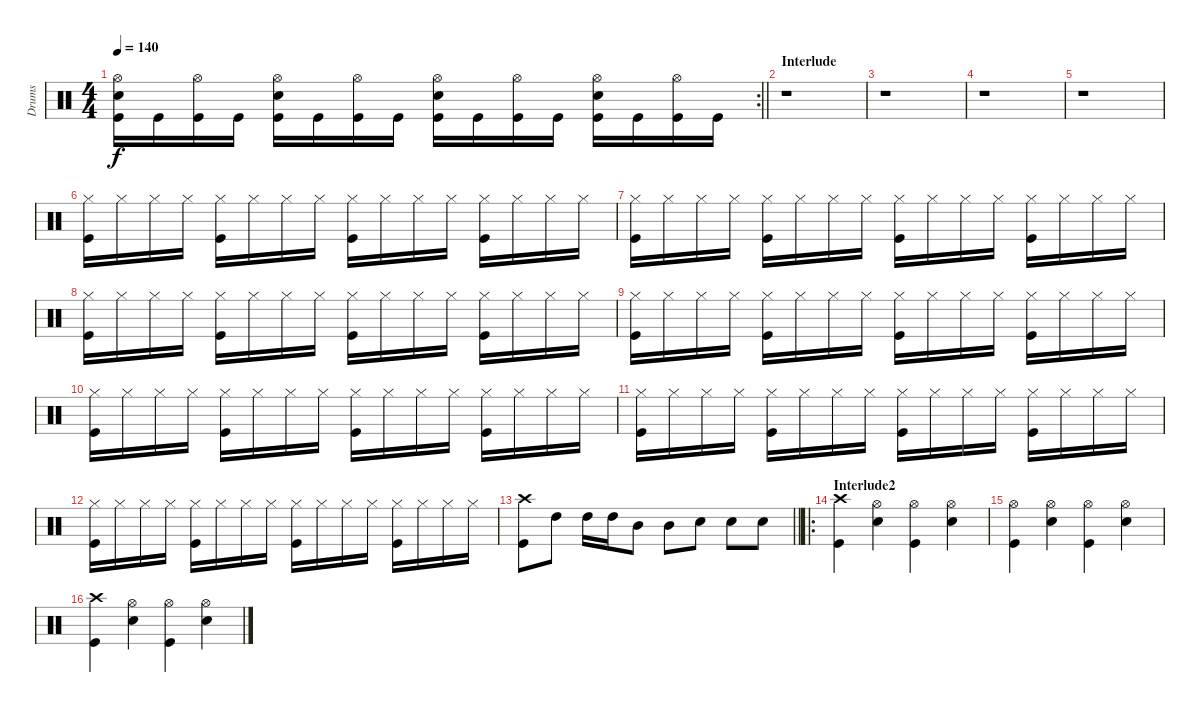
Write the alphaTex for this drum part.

\track ("Drums" "Drums") {instrument percussion}
\staff {score}
\articulation defaults
\rc 2
\ts (4 4)
\tempo 140
\clef neutral
\barLineRight lightlight
\ks c
("Snare (hit) 2" "Hi-Hat (open)" "Kick (hit)").16{dy f} "Kick (hit)".16 ("Hi-Hat (open)" "Kick (hit)").16 "Kick (hit)".16 ("Snare (hit) 2" "Hi-Hat (open)" "Kick (hit)").16 "Kick (hit)".16 ("Hi-Hat (open)" "Kick (hit)").16 "Kick (hit)".16 ("Snare (hit) 2" "Hi-Hat (open)" "Kick (hit)").16 "Kick (hit)".16 ("Hi-Hat (open)" "Kick (hit)").16 "Kick (hit)".16 ("Snare (hit) 2" "Hi-Hat (open)" "Kick (hit)").16 "Kick (hit)".16 ("Hi-Hat (open)" "Kick (hit)").16 "Kick (hit)".16 |
\section ("" "Interlude")
r.1 |
r.1 |
r.1 |
r.1 |
("Hi-Hat (closed)" "Kick (hit)").16 "Hi-Hat (closed)".16 "Hi-Hat (closed)".16 "Hi-Hat (closed)".16 ("Hi-Hat (closed)" "Kick (hit)").16 "Hi-Hat (closed)".16 "Hi-Hat (closed)".16 "Hi-Hat (closed)".16 ("Hi-Hat (closed)" "Kick (hit)").16 "Hi-Hat (closed)".16 "Hi-Hat (closed)".16 "Hi-Hat (closed)".16 ("Hi-Hat (closed)" "Kick (hit)").16 "Hi-Hat (closed)".16 "Hi-Hat (closed)".16 "Hi-Hat (closed)".16 |
("Hi-Hat (closed)" "Kick (hit)").16 "Hi-Hat (closed)".16 "Hi-Hat (closed)".16 "Hi-Hat (closed)".16 ("Hi-Hat (closed)" "Kick (hit)").16 "Hi-Hat (closed)".16 "Hi-Hat (closed)".16 "Hi-Hat (closed)".16 ("Hi-Hat (closed)" "Kick (hit)").16 "Hi-Hat (closed)".16 "Hi-Hat (closed)".16 "Hi-Hat (closed)".16 ("Hi-Hat (closed)" "Kick (hit)").16 "Hi-Hat (closed)".16 "Hi-Hat (closed)".16 "Hi-Hat (closed)".16 |
("Hi-Hat (closed)" "Kick (hit)").16 "Hi-Hat (closed)".16 "Hi-Hat (closed)".16 "Hi-Hat (closed)".16 ("Hi-Hat (closed)" "Kick (hit)").16 "Hi-Hat (closed)".16 "Hi-Hat (closed)".16 "Hi-Hat (closed)".16 ("Hi-Hat (closed)" "Kick (hit)").16 "Hi-Hat (closed)".16 "Hi-Hat (closed)".16 "Hi-Hat (closed)".16 ("Hi-Hat (closed)" "Kick (hit)").16 "Hi-Hat (closed)".16 "Hi-Hat (closed)".16 "Hi-Hat (closed)".16 |
("Hi-Hat (closed)" "Kick (hit)").16 "Hi-Hat (closed)".16 "Hi-Hat (closed)".16 "Hi-Hat (closed)".16 ("Hi-Hat (closed)" "Kick (hit)").16 "Hi-Hat (closed)".16 "Hi-Hat (closed)".16 "Hi-Hat (closed)".16 ("Hi-Hat (closed)" "Kick (hit)").16 "Hi-Hat (closed)".16 "Hi-Hat (closed)".16 "Hi-Hat (closed)".16 ("Hi-Hat (closed)" "Kick (hit)").16 "Hi-Hat (closed)".16 "Hi-Hat (closed)".16 "Hi-Hat (closed)".16 |
("Hi-Hat (closed)" "Kick (hit)").16 "Hi-Hat (closed)".16 "Hi-Hat (closed)".16 "Hi-Hat (closed)".16 ("Hi-Hat (closed)" "Kick (hit)").16 "Hi-Hat (closed)".16 "Hi-Hat (closed)".16 "Hi-Hat (closed)".16 ("Hi-Hat (closed)" "Kick (hit)").16 "Hi-Hat (closed)".16 "Hi-Hat (closed)".16 "Hi-Hat (closed)".16 ("Hi-Hat (closed)" "Kick (hit)").16 "Hi-Hat (closed)".16 "Hi-Hat (closed)".16 "Hi-Hat (closed)".16 |
("Hi-Hat (closed)" "Kick (hit)").16 "Hi-Hat (closed)".16 "Hi-Hat (closed)".16 "Hi-Hat (closed)".16 ("Hi-Hat (closed)" "Kick (hit)").16 "Hi-Hat (closed)".16 "Hi-Hat (closed)".16 "Hi-Hat (closed)".16 ("Hi-Hat (closed)" "Kick (hit)").16 "Hi-Hat (closed)".16 "Hi-Hat (closed)".16 "Hi-Hat (closed)".16 ("Hi-Hat (closed)" "Kick (hit)").16 "Hi-Hat (closed)".16 "Hi-Hat (closed)".16 "Hi-Hat (closed)".16 |
("Hi-Hat (closed)" "Kick (hit)").16 "Hi-Hat (closed)".16 "Hi-Hat (closed)".16 "Hi-Hat (closed)".16 ("Hi-Hat (closed)" "Kick (hit)").16 "Hi-Hat (closed)".16 "Hi-Hat (closed)".16 "Hi-Hat (closed)".16 ("Hi-Hat (closed)" "Kick (hit)").16 "Hi-Hat (closed)".16 "Hi-Hat (closed)".16 "Hi-Hat (closed)".16 ("Hi-Hat (closed)" "Kick (hit)").16 "Hi-Hat (closed)".16 "Hi-Hat (closed)".16 "Hi-Hat (closed)".16 |
\barLineRight lightlight
("Crash high (hit)" "Kick (hit)").8 "High Tom (hit)".8 "High Tom (hit)".16 "High Tom (hit)".16 "Mid Tom (hit)".8 "Mid Tom (hit)".8 "Snare (hit) 2".8 "Snare (hit) 2".8 "Snare (hit) 2".8 |
\ro
\section ("" "Interlude2")
("Crash high (hit)" "Kick (hit)").4 ("Hi-Hat (open)" "Snare (hit) 2").4 ("Hi-Hat (open)" "Kick (hit)").4 ("Hi-Hat (open)" "Snare (hit) 2").4 |
("Hi-Hat (open)" "Kick (hit)").4 ("Hi-Hat (open)" "Snare (hit) 2").4 ("Hi-Hat (open)" "Kick (hit)").4 ("Hi-Hat (open)" "Snare (hit) 2").4 |
("Crash high (hit)" "Kick (hit)").4 ("Hi-Hat (open)" "Snare (hit) 2").4 ("Hi-Hat (open)" "Kick (hit)").4 ("Hi-Hat (open)" "Snare (hit) 2").4
